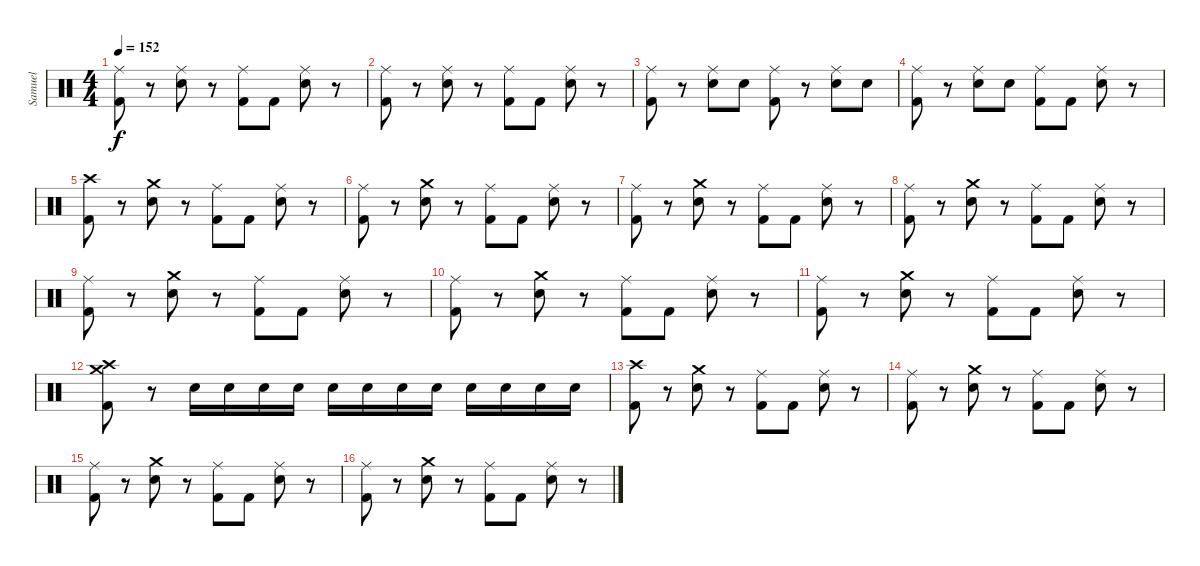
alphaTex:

\track ("Samuel" "Samuel") {instrument percussion}
\staff {score}
\articulation defaults
\ts (4 4)
\tempo 152
\clef neutral
\ks c
("Ride (middle)" "Kick (hit) 2").8{dy f} r.8 ("Ride (middle)" "Snare (hit) 2").8 r.8 ("Ride (middle)" "Kick (hit) 2").8 "Kick (hit) 2".8 ("Ride (middle)" "Snare (hit) 2").8 r.8 |
("Ride (middle)" "Kick (hit) 2").8 r.8 ("Ride (middle)" "Snare (hit) 2").8 r.8 ("Ride (middle)" "Kick (hit) 2").8 "Kick (hit) 2".8 ("Ride (middle)" "Snare (hit) 2").8 r.8 |
("Ride (middle)" "Kick (hit) 2").8 r.8 ("Ride (middle)" "Snare (hit) 2").8 "Snare (hit) 2".8 ("Ride (middle)" "Kick (hit) 2").8 r.8 ("Ride (middle)" "Snare (hit) 2").8 "Snare (hit) 2".8 |
("Ride (middle)" "Kick (hit) 2").8 r.8 ("Ride (middle)" "Snare (hit) 2").8 "Snare (hit) 2".8 ("Ride (middle)" "Kick (hit) 2").8 "Kick (hit) 2".8 ("Ride (middle)" "Snare (hit) 2").8 r.8 |
("Crash high (hit)" "Kick (hit) 2").8 r.8 ("Crash medium (hit)" "Snare (hit) 2").8 r.8 ("Ride (middle)" "Kick (hit) 2").8 "Kick (hit) 2".8 ("Ride (middle)" "Snare (hit) 2").8 r.8 |
("Ride (middle)" "Kick (hit) 2").8 r.8 ("Crash medium (hit)" "Snare (hit) 2").8 r.8 ("Ride (middle)" "Kick (hit) 2").8 "Kick (hit) 2".8 ("Ride (middle)" "Snare (hit) 2").8 r.8 |
("Ride (middle)" "Kick (hit) 2").8 r.8 ("Crash medium (hit)" "Snare (hit) 2").8 r.8 ("Ride (middle)" "Kick (hit) 2").8 "Kick (hit) 2".8 ("Ride (middle)" "Snare (hit) 2").8 r.8 |
("Ride (middle)" "Kick (hit) 2").8 r.8 ("Crash medium (hit)" "Snare (hit) 2").8 r.8 ("Ride (middle)" "Kick (hit) 2").8 "Kick (hit) 2".8 ("Ride (middle)" "Snare (hit) 2").8 r.8 |
("Ride (middle)" "Kick (hit) 2").8 r.8 ("Crash medium (hit)" "Snare (hit) 2").8 r.8 ("Ride (middle)" "Kick (hit) 2").8 "Kick (hit) 2".8 ("Ride (middle)" "Snare (hit) 2").8 r.8 |
("Ride (middle)" "Kick (hit) 2").8 r.8 ("Crash medium (hit)" "Snare (hit) 2").8 r.8 ("Ride (middle)" "Kick (hit) 2").8 "Kick (hit) 2".8 ("Ride (middle)" "Snare (hit) 2").8 r.8 |
("Ride (middle)" "Kick (hit) 2").8 r.8 ("Crash medium (hit)" "Snare (hit) 2").8 r.8 ("Ride (middle)" "Kick (hit) 2").8 "Kick (hit) 2".8 ("Ride (middle)" "Snare (hit) 2").8 r.8 |
("Crash medium (hit)" "Crash high (hit)" "Kick (hit) 2").8 r.8 "Snare (hit) 2".16 "Snare (hit) 2".16 "Snare (hit) 2".16 "Snare (hit) 2".16 "Snare (hit) 2".16 "Snare (hit) 2".16 "Snare (hit) 2".16 "Snare (hit) 2".16 "Snare (hit) 2".16 "Snare (hit) 2".16 "Snare (hit) 2".16 "Snare (hit) 2".16 |
("Crash high (hit)" "Kick (hit) 2").8 r.8 ("Crash medium (hit)" "Snare (hit) 2").8 r.8 ("Ride (middle)" "Kick (hit) 2").8 "Kick (hit) 2".8 ("Ride (middle)" "Snare (hit) 2").8 r.8 |
("Ride (middle)" "Kick (hit) 2").8 r.8 ("Crash medium (hit)" "Snare (hit) 2").8 r.8 ("Ride (middle)" "Kick (hit) 2").8 "Kick (hit) 2".8 ("Ride (middle)" "Snare (hit) 2").8 r.8 |
("Ride (middle)" "Kick (hit) 2").8 r.8 ("Crash medium (hit)" "Snare (hit) 2").8 r.8 ("Ride (middle)" "Kick (hit) 2").8 "Kick (hit) 2".8 ("Ride (middle)" "Snare (hit) 2").8 r.8 |
("Ride (middle)" "Kick (hit) 2").8 r.8 ("Crash medium (hit)" "Snare (hit) 2").8 r.8 ("Ride (middle)" "Kick (hit) 2").8 "Kick (hit) 2".8 ("Ride (middle)" "Snare (hit) 2").8 r.8
